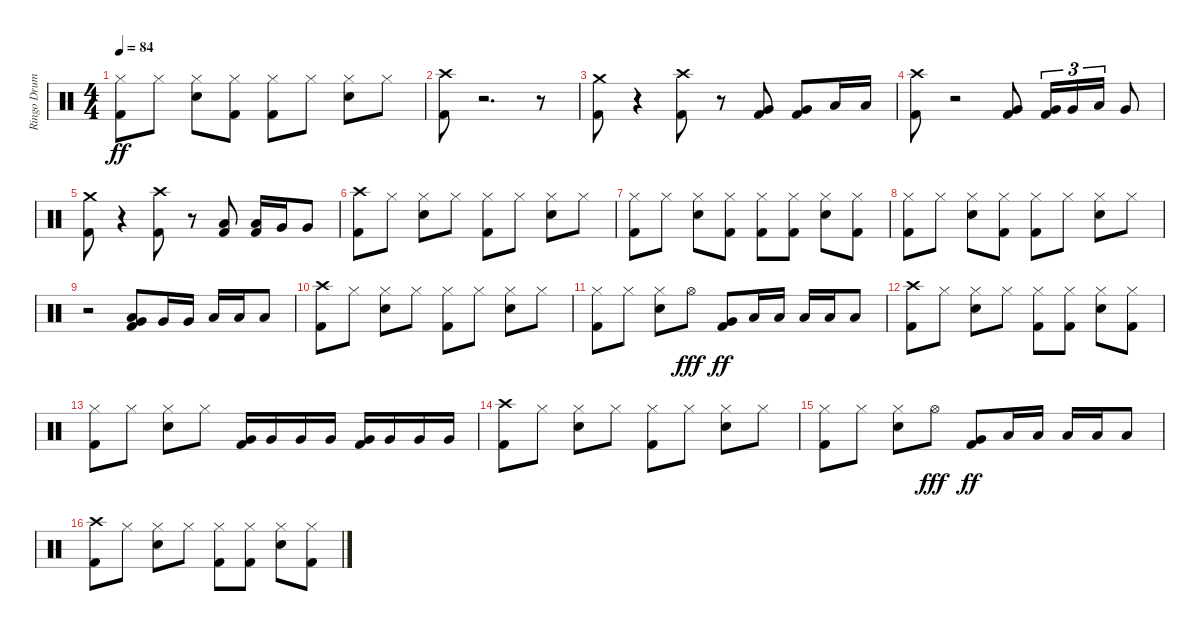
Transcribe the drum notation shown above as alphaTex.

\track ("Ringo Drums" "Ringo Drum") {instrument percussion}
\staff {score}
\articulation defaults
\ts (4 4)
\tempo 84
\clef neutral
\ks c
("Kick (hit) 2" "Hi-Hat (closed)").8{dy ff} "Hi-Hat (closed)".8 ("Hi-Hat (closed)" "Snare (hit) 2").8 ("Hi-Hat (closed)" "Kick (hit) 2").8 ("Hi-Hat (closed)" "Kick (hit) 2").8 "Hi-Hat (closed)".8 ("Hi-Hat (closed)" "Snare (hit) 2").8 "Hi-Hat (closed)".8 |
("Crash high (hit)" "Kick (hit) 2").8 r.2{d} r.8 |
("Crash medium (hit)" "Kick (hit) 2").8 r.4 ("Kick (hit) 2" "Crash high (hit)").8 r.8 ("Kick (hit) 2" "Very Low Tom (hit)").8 ("Kick (hit) 2" "Very Low Tom (hit)").8 "Low Floor Tom (hit)".16 "Low Floor Tom (hit)".16 |
("Kick (hit) 2" "Crash high (hit)").8 r.2 ("Very Low Tom (hit)" "Kick (hit) 2").8 ("Very Low Tom (hit)" "Kick (hit) 2").16{tu (3 2)} "Very Low Tom (hit)".16{tu (3 2)} "Low Floor Tom (hit)".16{tu (3 2)} "Very Low Tom (hit)".8 |
("Kick (hit) 2" "Crash medium (hit)").8 r.4 ("Kick (hit) 2" "Crash high (hit)").8 r.8 ("Low Floor Tom (hit)" "Kick (hit) 2").8 ("Kick (hit) 2" "Low Floor Tom (hit)").16 "Very Low Tom (hit)".16 "Very Low Tom (hit)".8 |
("Kick (hit) 2" "Crash high (hit)").8 "Hi-Hat (closed)".8 ("Hi-Hat (closed)" "Snare (hit) 2").8 "Hi-Hat (closed)".8 ("Hi-Hat (closed)" "Kick (hit) 2").8 "Hi-Hat (closed)".8 ("Snare (hit) 2" "Hi-Hat (closed)").8 "Hi-Hat (closed)".8 |
("Hi-Hat (closed)" "Kick (hit) 2").8 "Hi-Hat (closed)".8 ("Hi-Hat (closed)" "Snare (hit) 2").8 ("Hi-Hat (closed)" "Kick (hit) 2").8 ("Kick (hit) 2" "Hi-Hat (closed)").8 ("Kick (hit) 2" "Hi-Hat (closed)").8 ("Snare (hit) 2" "Hi-Hat (closed)").8 ("Kick (hit) 2" "Hi-Hat (closed)").8 |
("Hi-Hat (closed)" "Kick (hit) 2").8 "Hi-Hat (closed)".8 ("Snare (hit) 2" "Hi-Hat (closed)").8 ("Kick (hit) 2" "Hi-Hat (closed)").8 ("Hi-Hat (closed)" "Kick (hit) 2").8 "Hi-Hat (closed)".8 ("Snare (hit) 2" "Hi-Hat (closed)").8 "Hi-Hat (closed)".8 |
r.2 ("Low Floor Tom (hit)" "Very Low Tom (hit)" "Kick (hit) 2").8 "Very Low Tom (hit)".16 "Very Low Tom (hit)".16 "Low Floor Tom (hit)".16 "Low Floor Tom (hit)".16 "Low Floor Tom (hit)".8 |
("Kick (hit) 2" "Crash high (hit)").8 "Hi-Hat (closed)".8 ("Hi-Hat (closed)" "Snare (hit) 2").8 "Hi-Hat (closed)".8 ("Hi-Hat (closed)" "Kick (hit) 2").8 "Hi-Hat (closed)".8 ("Snare (hit) 2" "Hi-Hat (closed)").8 "Hi-Hat (closed)".8 |
("Hi-Hat (closed)" "Kick (hit) 2").8 "Hi-Hat (closed)".8 ("Snare (hit) 2" "Hi-Hat (closed)").8 "Hi-Hat (open)".8{dy fff} ("Very Low Tom (hit)" "Kick (hit) 2").8{dy ff} "Low Floor Tom (hit)".16 "Low Floor Tom (hit)".16 "Low Floor Tom (hit)".16 "Low Floor Tom (hit)".16 "Low Floor Tom (hit)".8 |
("Crash high (hit)" "Kick (hit) 2").8 "Hi-Hat (closed)".8 ("Hi-Hat (closed)" "Snare (hit) 2").8 "Hi-Hat (closed)".8 ("Hi-Hat (closed)" "Kick (hit) 2").8 ("Hi-Hat (closed)" "Kick (hit) 2").8 ("Hi-Hat (closed)" "Snare (hit) 2").8 ("Hi-Hat (closed)" "Kick (hit) 2").8 |
("Kick (hit) 2" "Hi-Hat (closed)").8 "Hi-Hat (closed)".8 ("Snare (hit) 2" "Hi-Hat (closed)").8 "Hi-Hat (closed)".8 ("Very Low Tom (hit)" "Kick (hit) 2").16 "Very Low Tom (hit)".16 "Very Low Tom (hit)".16 "Very Low Tom (hit)".16 ("Very Low Tom (hit)" "Kick (hit) 2").16 "Very Low Tom (hit)".16 "Very Low Tom (hit)".16 "Very Low Tom (hit)".16 |
("Crash high (hit)" "Kick (hit) 2").8 "Hi-Hat (closed)".8 ("Hi-Hat (closed)" "Snare (hit) 2").8 "Hi-Hat (closed)".8 ("Kick (hit) 2" "Hi-Hat (closed)").8 "Hi-Hat (closed)".8 ("Snare (hit) 2" "Hi-Hat (closed)").8 "Hi-Hat (closed)".8 |
("Kick (hit) 2" "Hi-Hat (closed)").8 "Hi-Hat (closed)".8 ("Hi-Hat (closed)" "Snare (hit) 2").8 "Hi-Hat (open)".8{dy fff} ("Kick (hit) 2" "Very Low Tom (hit)").8{dy ff} "Low Floor Tom (hit)".16 "Low Floor Tom (hit)".16 "Low Floor Tom (hit)".16 "Low Floor Tom (hit)".16 "Low Floor Tom (hit)".8 |
("Kick (hit) 2" "Crash high (hit)").8 "Hi-Hat (closed)".8 ("Snare (hit) 2" "Hi-Hat (closed)").8 "Hi-Hat (closed)".8 ("Kick (hit) 2" "Hi-Hat (closed)").8 ("Kick (hit) 2" "Hi-Hat (closed)").8 ("Snare (hit) 2" "Hi-Hat (closed)").8 ("Hi-Hat (closed)" "Kick (hit) 2").8
